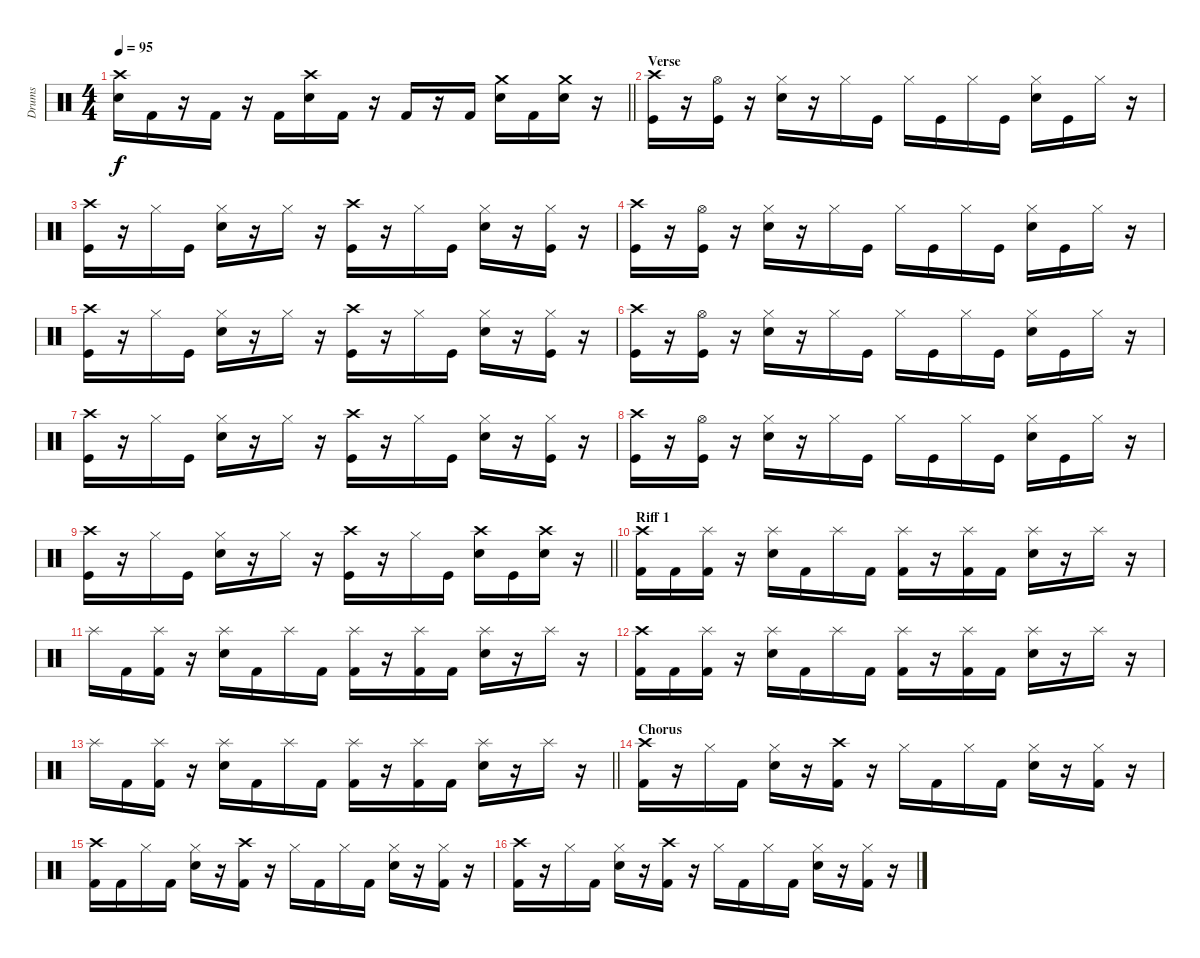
\track ("Drums" "Drums") {instrument percussion}
\staff {score}
\articulation defaults
\ts (4 4)
\tempo 95
\clef neutral
\barLineRight lightlight
\ks c
("Crash high (hit)" "Electric Snare (hit)").16{dy f} "Kick (hit) 2".16 r.16 "Kick (hit) 2".16 r.16 "Kick (hit) 2".16 ("Crash high (hit)" "Electric Snare (hit)").16 "Kick (hit) 2".16 r.16 "Kick (hit) 2".16 r.16 "Kick (hit) 2".16 ("Crash medium (hit)" "Electric Snare (hit)").16 "Kick (hit) 2".16 ("Crash medium (hit)" "Electric Snare (hit)").16 r.16 |
\section ("" "Verse")
("Crash high (hit)" "Kick (hit)").16 r.16 ("Hi-Hat (open)" "Kick (hit)").16 r.16 ("Hi-Hat (closed)" "Electric Snare (hit)").16 r.16 "Hi-Hat (closed)".16 "Kick (hit)".16 "Hi-Hat (closed)".16 "Kick (hit)".16 "Hi-Hat (closed)".16 "Kick (hit)".16 ("Hi-Hat (closed)" "Electric Snare (hit)").16 "Kick (hit)".16 "Hi-Hat (closed)".16 r.16 |
("Crash high (hit)" "Kick (hit)").16 r.16 "Hi-Hat (closed)".16 "Kick (hit)".16 ("Hi-Hat (closed)" "Electric Snare (hit)").16 r.16 "Hi-Hat (closed)".16 r.16 ("Crash high (hit)" "Kick (hit)").16 r.16 "Hi-Hat (closed)".16 "Kick (hit)".16 ("Hi-Hat (closed)" "Electric Snare (hit)").16 r.16 ("Hi-Hat (closed)" "Kick (hit)").16 r.16 |
("Crash high (hit)" "Kick (hit)").16 r.16 ("Hi-Hat (open)" "Kick (hit)").16 r.16 ("Hi-Hat (closed)" "Electric Snare (hit)").16 r.16 "Hi-Hat (closed)".16 "Kick (hit)".16 "Hi-Hat (closed)".16 "Kick (hit)".16 "Hi-Hat (closed)".16 "Kick (hit)".16 ("Hi-Hat (closed)" "Electric Snare (hit)").16 "Kick (hit)".16 "Hi-Hat (closed)".16 r.16 |
("Crash high (hit)" "Kick (hit)").16 r.16 "Hi-Hat (closed)".16 "Kick (hit)".16 ("Hi-Hat (closed)" "Electric Snare (hit)").16 r.16 "Hi-Hat (closed)".16 r.16 ("Crash high (hit)" "Kick (hit)").16 r.16 "Hi-Hat (closed)".16 "Kick (hit)".16 ("Hi-Hat (closed)" "Electric Snare (hit)").16 r.16 ("Hi-Hat (closed)" "Kick (hit)").16 r.16 |
("Crash high (hit)" "Kick (hit)").16 r.16 ("Hi-Hat (open)" "Kick (hit)").16 r.16 ("Hi-Hat (closed)" "Electric Snare (hit)").16 r.16 "Hi-Hat (closed)".16 "Kick (hit)".16 "Hi-Hat (closed)".16 "Kick (hit)".16 "Hi-Hat (closed)".16 "Kick (hit)".16 ("Hi-Hat (closed)" "Electric Snare (hit)").16 "Kick (hit)".16 "Hi-Hat (closed)".16 r.16 |
("Crash high (hit)" "Kick (hit)").16 r.16 "Hi-Hat (closed)".16 "Kick (hit)".16 ("Hi-Hat (closed)" "Electric Snare (hit)").16 r.16 "Hi-Hat (closed)".16 r.16 ("Crash high (hit)" "Kick (hit)").16 r.16 "Hi-Hat (closed)".16 "Kick (hit)".16 ("Hi-Hat (closed)" "Electric Snare (hit)").16 r.16 ("Hi-Hat (closed)" "Kick (hit)").16 r.16 |
("Crash high (hit)" "Kick (hit)").16 r.16 ("Hi-Hat (open)" "Kick (hit)").16 r.16 ("Hi-Hat (closed)" "Electric Snare (hit)").16 r.16 "Hi-Hat (closed)".16 "Kick (hit)".16 "Hi-Hat (closed)".16 "Kick (hit)".16 "Hi-Hat (closed)".16 "Kick (hit)".16 ("Hi-Hat (closed)" "Electric Snare (hit)").16 "Kick (hit)".16 "Hi-Hat (closed)".16 r.16 |
\barLineRight lightlight
("Crash high (hit)" "Kick (hit)").16 r.16 "Hi-Hat (closed)".16 "Kick (hit)".16 ("Hi-Hat (closed)" "Electric Snare (hit)").16 r.16 "Hi-Hat (closed)".16 r.16 ("Crash high (hit)" "Kick (hit)").16 r.16 "Hi-Hat (closed)".16 "Kick (hit)".16 ("Crash high (hit)" "Electric Snare (hit)").16 "Kick (hit)".16 ("Crash high (hit)" "Electric Snare (hit)").16 r.16 |
\section ("" "Riff 1")
("Crash high (hit)" "Kick (hit) 2").16 "Kick (hit) 2".16 ("Splash (hit)" "Kick (hit) 2").16 r.16 ("Splash (hit)" "Electric Snare (hit)").16 "Kick (hit) 2".16 "Splash (hit)".16 "Kick (hit) 2".16 ("Splash (hit)" "Kick (hit) 2").16 r.16 ("Splash (hit)" "Kick (hit) 2").16 "Kick (hit) 2".16 ("Splash (hit)" "Electric Snare (hit)").16 r.16 "Splash (hit)".16 r.16 |
"Splash (hit)".16 "Kick (hit) 2".16 ("Splash (hit)" "Kick (hit) 2").16 r.16 ("Splash (hit)" "Electric Snare (hit)").16 "Kick (hit) 2".16 "Splash (hit)".16 "Kick (hit) 2".16 ("Splash (hit)" "Kick (hit) 2").16 r.16 ("Splash (hit)" "Kick (hit) 2").16 "Kick (hit) 2".16 ("Splash (hit)" "Electric Snare (hit)").16 r.16 "Splash (hit)".16 r.16 |
("Crash high (hit)" "Kick (hit) 2").16 "Kick (hit) 2".16 ("Splash (hit)" "Kick (hit) 2").16 r.16 ("Splash (hit)" "Electric Snare (hit)").16 "Kick (hit) 2".16 "Splash (hit)".16 "Kick (hit) 2".16 ("Splash (hit)" "Kick (hit) 2").16 r.16 ("Splash (hit)" "Kick (hit) 2").16 "Kick (hit) 2".16 ("Splash (hit)" "Electric Snare (hit)").16 r.16 "Splash (hit)".16 r.16 |
\barLineRight lightlight "Splash (hit)".16 "Kick (hit) 2".16
("Splash (hit)" "Kick (hit) 2").16 r.16 ("Splash (hit)" "Electric Snare (hit)").16 "Kick (hit) 2".16 "Splash (hit)".16 "Kick (hit) 2".16 ("Splash (hit)" "Kick (hit) 2").16 r.16 ("Splash (hit)" "Kick (hit) 2").16 "Kick (hit) 2".16 ("Splash (hit)" "Electric Snare (hit)").16 r.16 "Splash (hit)".16 r.16 |
\section ("" "Chorus")
("Crash high (hit)" "Kick (hit) 2").16 r.16 "Hi-Hat (closed)".16 "Kick (hit) 2".16 ("Hi-Hat (closed)" "Electric Snare (hit)").16 r.16 ("Crash high (hit)" "Kick (hit) 2").16 r.16 "Hi-Hat (closed)".16 "Kick (hit) 2".16 "Hi-Hat (closed)".16 "Kick (hit) 2".16 ("Hi-Hat (closed)" "Electric Snare (hit)").16 r.16 ("Hi-Hat (closed)" "Kick (hit) 2").16 r.16 |
("Crash high (hit)" "Kick (hit) 2").16 "Kick (hit) 2".16 "Hi-Hat (closed)".16 "Kick (hit) 2".16 ("Hi-Hat (closed)" "Electric Snare (hit)").16 r.16 ("Crash high (hit)" "Kick (hit) 2").16 r.16 "Hi-Hat (closed)".16 "Kick (hit) 2".16 "Hi-Hat (closed)".16 "Kick (hit) 2".16 ("Hi-Hat (closed)" "Electric Snare (hit)").16 r.16 ("Hi-Hat (closed)" "Kick (hit) 2").16 r.16 |
("Crash high (hit)" "Kick (hit) 2").16 r.16 "Hi-Hat (closed)".16 "Kick (hit) 2".16 ("Hi-Hat (closed)" "Electric Snare (hit)").16 r.16 ("Crash high (hit)" "Kick (hit) 2").16 r.16 "Hi-Hat (closed)".16 "Kick (hit) 2".16 "Hi-Hat (closed)".16 "Kick (hit) 2".16 ("Hi-Hat (closed)" "Electric Snare (hit)").16 r.16 ("Hi-Hat (closed)" "Kick (hit) 2").16 r.16
